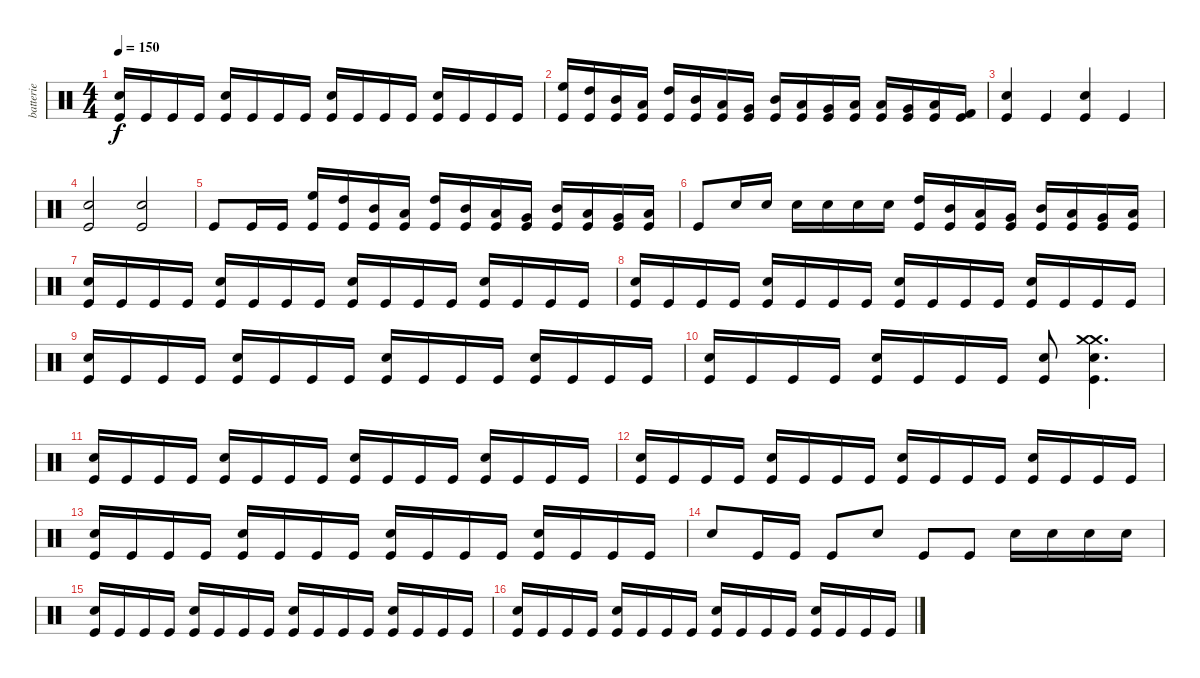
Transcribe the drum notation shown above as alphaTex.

\track ("batterie" "batterie") {instrument percussion}
\staff {score}
\articulation defaults
\ts (4 4)
\tempo 150
\clef neutral
\ks c
("Snare (hit) 2" "Kick (hit)").16{dy f} "Kick (hit)".16 "Kick (hit)".16 "Kick (hit)".16 ("Snare (hit) 2" "Kick (hit)").16 "Kick (hit)".16 "Kick (hit)".16 "Kick (hit)".16 ("Snare (hit) 2" "Kick (hit)").16 "Kick (hit)".16 "Kick (hit)".16 "Kick (hit)".16 ("Snare (hit) 2" "Kick (hit)").16 "Kick (hit)".16 "Kick (hit)".16 "Kick (hit)".16 |
("High Floor Tom (hit)" "Kick (hit)").16 ("High Tom (hit)" "Kick (hit)").16 ("Mid Tom (hit)" "Kick (hit)").16 ("Low Tom (hit)" "Kick (hit)").16 ("High Tom (hit)" "Kick (hit)").16 ("Mid Tom (hit)" "Kick (hit)").16 ("Low Tom (hit)" "Kick (hit)").16 ("Very Low Tom (hit)" "Kick (hit)").16 ("Mid Tom (hit)" "Kick (hit)").16 ("Low Tom (hit)" "Kick (hit)").16 ("Very Low Tom (hit)" "Kick (hit)").16 ("Low Floor Tom (hit)" "Kick (hit)").16 ("Low Tom (hit)" "Kick (hit)").16 ("Very Low Tom (hit)" "Kick (hit)").16 ("Low Floor Tom (hit)" "Kick (hit)").16 ("Kick (hit) 2" "Kick (hit)").16 |
("Snare (hit) 2" "Kick (hit)").4 "Kick (hit)".4 ("Snare (hit) 2" "Kick (hit)").4 "Kick (hit)".4 |
("Snare (hit) 2" "Kick (hit)").2 ("Snare (hit) 2" "Kick (hit)").2 |
"Kick (hit)".8 "Kick (hit)".16 "Kick (hit)".16 ("High Floor Tom (hit)" "Kick (hit)").16 ("High Tom (hit)" "Kick (hit)").16 ("Mid Tom (hit)" "Kick (hit)").16 ("Low Tom (hit)" "Kick (hit)").16 ("High Tom (hit)" "Kick (hit)").16 ("Mid Tom (hit)" "Kick (hit)").16 ("Low Tom (hit)" "Kick (hit)").16 ("Very Low Tom (hit)" "Kick (hit)").16 ("Mid Tom (hit)" "Kick (hit)").16 ("Low Tom (hit)" "Kick (hit)").16 ("Very Low Tom (hit)" "Kick (hit)").16 ("Low Floor Tom (hit)" "Kick (hit)").16 |
"Kick (hit)".8 "Snare (hit) 2".16 "Snare (hit) 2".16 "Snare (hit) 2".16 "Snare (hit) 2".16 "Snare (hit) 2".16 "Snare (hit) 2".16 ("High Tom (hit)" "Kick (hit)").16 ("Mid Tom (hit)" "Kick (hit)").16 ("Low Tom (hit)" "Kick (hit)").16 ("Very Low Tom (hit)" "Kick (hit)").16 ("Mid Tom (hit)" "Kick (hit)").16 ("Low Tom (hit)" "Kick (hit)").16 ("Very Low Tom (hit)" "Kick (hit)").16 ("Low Floor Tom (hit)" "Kick (hit)").16 |
("Snare (hit) 2" "Kick (hit)").16 "Kick (hit)".16 "Kick (hit)".16 "Kick (hit)".16 ("Snare (hit) 2" "Kick (hit)").16 "Kick (hit)".16 "Kick (hit)".16 "Kick (hit)".16 ("Snare (hit) 2" "Kick (hit)").16 "Kick (hit)".16 "Kick (hit)".16 "Kick (hit)".16 ("Snare (hit) 2" "Kick (hit)").16 "Kick (hit)".16 "Kick (hit)".16 "Kick (hit)".16 |
("Snare (hit) 2" "Kick (hit)").16 "Kick (hit)".16 "Kick (hit)".16 "Kick (hit)".16 ("Snare (hit) 2" "Kick (hit)").16 "Kick (hit)".16 "Kick (hit)".16 "Kick (hit)".16 ("Snare (hit) 2" "Kick (hit)").16 "Kick (hit)".16 "Kick (hit)".16 "Kick (hit)".16 ("Snare (hit) 2" "Kick (hit)").16 "Kick (hit)".16 "Kick (hit)".16 "Kick (hit)".16 |
("Snare (hit) 2" "Kick (hit)").16 "Kick (hit)".16 "Kick (hit)".16 "Kick (hit)".16 ("Snare (hit) 2" "Kick (hit)").16 "Kick (hit)".16 "Kick (hit)".16 "Kick (hit)".16 ("Snare (hit) 2" "Kick (hit)").16 "Kick (hit)".16 "Kick (hit)".16 "Kick (hit)".16 ("Snare (hit) 2" "Kick (hit)").16 "Kick (hit)".16 "Kick (hit)".16 "Kick (hit)".16 |
("Snare (hit) 2" "Kick (hit)").16 "Kick (hit)".16 "Kick (hit)".16 "Kick (hit)".16 ("Snare (hit) 2" "Kick (hit)").16 "Kick (hit)".16 "Kick (hit)".16 "Kick (hit)".16 ("Snare (hit) 2" "Kick (hit)").8 ("Crash medium (hit)" "Crash medium (hit)" "Snare (hit) 2" "Kick (hit)").4{d} |
("Snare (hit) 2" "Kick (hit)").16 "Kick (hit)".16 "Kick (hit)".16 "Kick (hit)".16 ("Snare (hit) 2" "Kick (hit)").16 "Kick (hit)".16 "Kick (hit)".16 "Kick (hit)".16 ("Snare (hit) 2" "Kick (hit)").16 "Kick (hit)".16 "Kick (hit)".16 "Kick (hit)".16 ("Snare (hit) 2" "Kick (hit)").16 "Kick (hit)".16 "Kick (hit)".16 "Kick (hit)".16 |
("Snare (hit) 2" "Kick (hit)").16 "Kick (hit)".16 "Kick (hit)".16 "Kick (hit)".16 ("Snare (hit) 2" "Kick (hit)").16 "Kick (hit)".16 "Kick (hit)".16 "Kick (hit)".16 ("Snare (hit) 2" "Kick (hit)").16 "Kick (hit)".16 "Kick (hit)".16 "Kick (hit)".16 ("Snare (hit) 2" "Kick (hit)").16 "Kick (hit)".16 "Kick (hit)".16 "Kick (hit)".16 |
("Snare (hit) 2" "Kick (hit)").16 "Kick (hit)".16 "Kick (hit)".16 "Kick (hit)".16 ("Snare (hit) 2" "Kick (hit)").16 "Kick (hit)".16 "Kick (hit)".16 "Kick (hit)".16 ("Snare (hit) 2" "Kick (hit)").16 "Kick (hit)".16 "Kick (hit)".16 "Kick (hit)".16 ("Snare (hit) 2" "Kick (hit)").16 "Kick (hit)".16 "Kick (hit)".16 "Kick (hit)".16 |
"Snare (hit) 2".8 "Kick (hit)".16 "Kick (hit)".16 "Kick (hit)".8 "Snare (hit) 2".8 "Kick (hit)".8 "Kick (hit)".8 "Snare (hit) 2".16 "Snare (hit) 2".16 "Snare (hit) 2".16 "Snare (hit) 2".16 |
("Snare (hit) 2" "Kick (hit)").16 "Kick (hit)".16 "Kick (hit)".16 "Kick (hit)".16 ("Snare (hit) 2" "Kick (hit)").16 "Kick (hit)".16 "Kick (hit)".16 "Kick (hit)".16 ("Snare (hit) 2" "Kick (hit)").16 "Kick (hit)".16 "Kick (hit)".16 "Kick (hit)".16 ("Snare (hit) 2" "Kick (hit)").16 "Kick (hit)".16 "Kick (hit)".16 "Kick (hit)".16 |
("Snare (hit) 2" "Kick (hit)").16 "Kick (hit)".16 "Kick (hit)".16 "Kick (hit)".16 ("Snare (hit) 2" "Kick (hit)").16 "Kick (hit)".16 "Kick (hit)".16 "Kick (hit)".16 ("Snare (hit) 2" "Kick (hit)").16 "Kick (hit)".16 "Kick (hit)".16 "Kick (hit)".16 ("Snare (hit) 2" "Kick (hit)").16 "Kick (hit)".16 "Kick (hit)".16 "Kick (hit)".16
